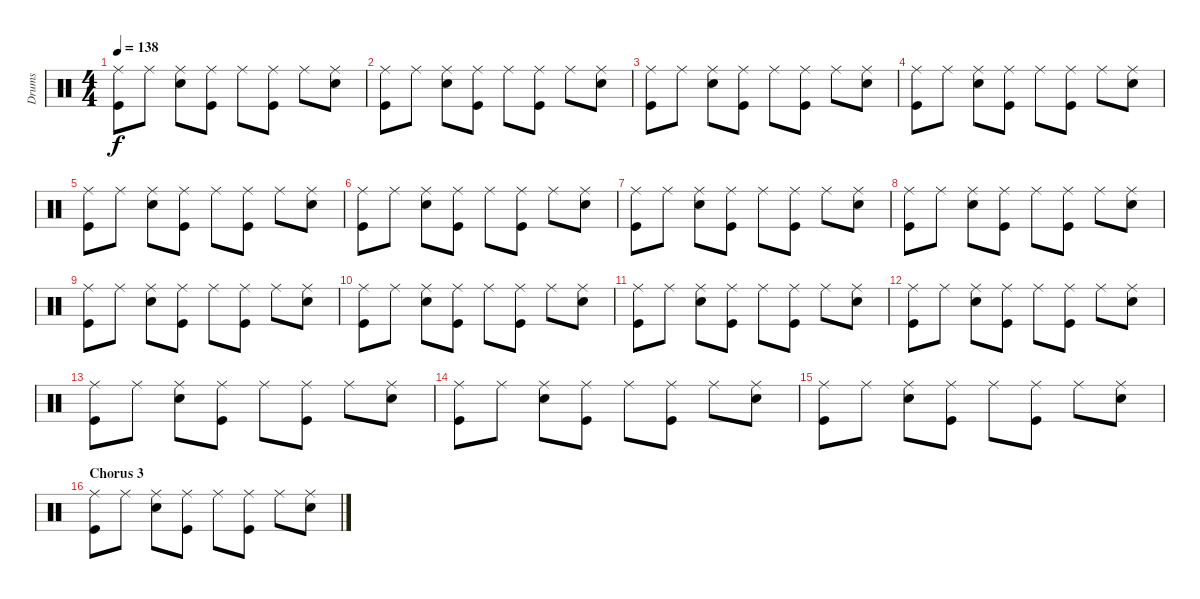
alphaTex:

\track ("Drums" "Drums") {instrument percussion}
\staff {score}
\articulation defaults
\ts (4 4)
\tempo 138
\clef neutral
\ks c
("Ride (middle)" "Kick (hit)").8{dy f} "Ride (middle)".8 ("Ride (middle)" "Snare (hit) 2").8 ("Ride (middle)" "Kick (hit)").8 "Ride (middle)".8 ("Ride (middle)" "Kick (hit)").8 "Ride (middle)".8 ("Ride (middle)" "Snare (hit) 2").8 |
("Ride (middle)" "Kick (hit)").8 "Ride (middle)".8 ("Ride (middle)" "Snare (hit) 2").8 ("Ride (middle)" "Kick (hit)").8 "Ride (middle)".8 ("Ride (middle)" "Kick (hit)").8 "Ride (middle)".8 ("Ride (middle)" "Snare (hit) 2").8 |
("Ride (middle)" "Kick (hit)").8 "Ride (middle)".8 ("Ride (middle)" "Snare (hit) 2").8 ("Ride (middle)" "Kick (hit)").8 "Ride (middle)".8 ("Ride (middle)" "Kick (hit)").8 "Ride (middle)".8 ("Ride (middle)" "Snare (hit) 2").8 |
("Ride (middle)" "Kick (hit)").8 "Ride (middle)".8 ("Ride (middle)" "Snare (hit) 2").8 ("Ride (middle)" "Kick (hit)").8 "Ride (middle)".8 ("Ride (middle)" "Kick (hit)").8 "Ride (middle)".8 ("Ride (middle)" "Snare (hit) 2").8 |
("Ride (middle)" "Kick (hit)").8 "Ride (middle)".8 ("Ride (middle)" "Snare (hit) 2").8 ("Ride (middle)" "Kick (hit)").8 "Ride (middle)".8 ("Ride (middle)" "Kick (hit)").8 "Ride (middle)".8 ("Ride (middle)" "Snare (hit) 2").8 |
("Ride (middle)" "Kick (hit)").8 "Ride (middle)".8 ("Ride (middle)" "Snare (hit) 2").8 ("Ride (middle)" "Kick (hit)").8 "Ride (middle)".8 ("Ride (middle)" "Kick (hit)").8 "Ride (middle)".8 ("Ride (middle)" "Snare (hit) 2").8 |
("Ride (middle)" "Kick (hit)").8 "Ride (middle)".8 ("Ride (middle)" "Snare (hit) 2").8 ("Ride (middle)" "Kick (hit)").8 "Ride (middle)".8 ("Ride (middle)" "Kick (hit)").8 "Ride (middle)".8 ("Ride (middle)" "Snare (hit) 2").8 |
("Ride (middle)" "Kick (hit)").8 "Ride (middle)".8 ("Ride (middle)" "Snare (hit) 2").8 ("Ride (middle)" "Kick (hit)").8 "Ride (middle)".8 ("Ride (middle)" "Kick (hit)").8 "Ride (middle)".8 ("Ride (middle)" "Snare (hit) 2").8 |
("Ride (middle)" "Kick (hit)").8 "Ride (middle)".8 ("Ride (middle)" "Snare (hit) 2").8 ("Ride (middle)" "Kick (hit)").8 "Ride (middle)".8 ("Ride (middle)" "Kick (hit)").8 "Ride (middle)".8 ("Ride (middle)" "Snare (hit) 2").8 |
("Ride (middle)" "Kick (hit)").8 "Ride (middle)".8 ("Ride (middle)" "Snare (hit) 2").8 ("Ride (middle)" "Kick (hit)").8 "Ride (middle)".8 ("Ride (middle)" "Kick (hit)").8 "Ride (middle)".8 ("Ride (middle)" "Snare (hit) 2").8 |
("Ride (middle)" "Kick (hit)").8 "Ride (middle)".8 ("Ride (middle)" "Snare (hit) 2").8 ("Ride (middle)" "Kick (hit)").8 "Ride (middle)".8 ("Ride (middle)" "Kick (hit)").8 "Ride (middle)".8 ("Ride (middle)" "Snare (hit) 2").8 |
("Ride (middle)" "Kick (hit)").8 "Ride (middle)".8 ("Ride (middle)" "Snare (hit) 2").8 ("Ride (middle)" "Kick (hit)").8 "Ride (middle)".8 ("Ride (middle)" "Kick (hit)").8 "Ride (middle)".8 ("Ride (middle)" "Snare (hit) 2").8 |
("Ride (middle)" "Kick (hit)").8 "Ride (middle)".8 ("Ride (middle)" "Snare (hit) 2").8 ("Ride (middle)" "Kick (hit)").8 "Ride (middle)".8 ("Ride (middle)" "Kick (hit)").8 "Ride (middle)".8 ("Ride (middle)" "Snare (hit) 2").8 |
("Ride (middle)" "Kick (hit)").8 "Ride (middle)".8 ("Ride (middle)" "Snare (hit) 2").8 ("Ride (middle)" "Kick (hit)").8 "Ride (middle)".8 ("Ride (middle)" "Kick (hit)").8 "Ride (middle)".8 ("Ride (middle)" "Snare (hit) 2").8 |
("Ride (middle)" "Kick (hit)").8 "Ride (middle)".8 ("Ride (middle)" "Snare (hit) 2").8 ("Ride (middle)" "Kick (hit)").8 "Ride (middle)".8 ("Ride (middle)" "Kick (hit)").8 "Ride (middle)".8 ("Ride (middle)" "Snare (hit) 2").8 |
\section ("" "Chorus 3")
("Ride (middle)" "Kick (hit)").8 "Ride (middle)".8 ("Ride (middle)" "Snare (hit) 2").8 ("Ride (middle)" "Kick (hit)").8 "Ride (middle)".8 ("Ride (middle)" "Kick (hit)").8 "Ride (middle)".8 ("Ride (middle)" "Snare (hit) 2").8
